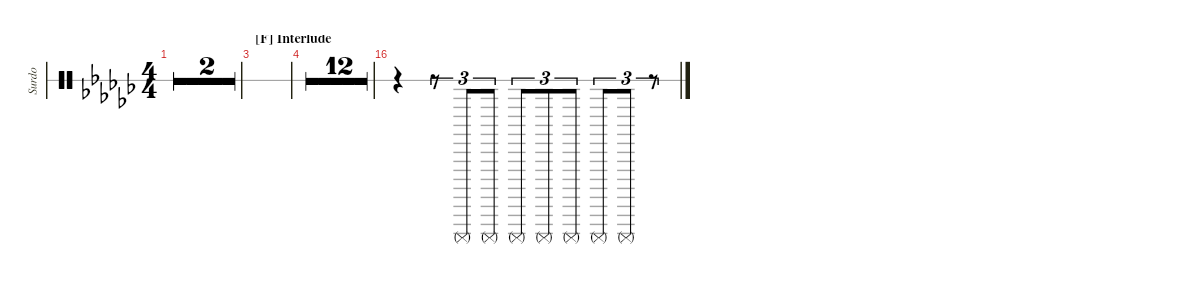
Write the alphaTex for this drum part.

\defaultSystemsLayout 4
\hideDynamics
\bracketExtendMode groupsimilarinstruments
\otherSystemsTrackNameOrientation horizontal
\track ("Surdo" "Surdo") {multiBarRest instrument percussion}
\staff {score 1}
\articulation defaults
\ts (4 4)
\tempo 139
\clef neutral
\ks gb
|
|
\section ("F" "Interlude")
|
|
|
|
|
|
|
|
|
|
|
|
|
r.4 r.8{tu (3 2)} "Surdo (mute)"{acc forcenatural}.8{tu (3 2)} "Surdo (mute)"{acc forcenatural}.8{tu (3 2)} "Surdo (mute)"{acc forcenatural}.8{tu (3 2)} "Surdo (mute)"{acc forcenatural}.8{tu (3 2)} "Surdo (mute)"{acc forcenatural}.8{tu (3 2)} "Surdo (mute)"{acc forcenatural}.8{tu (3 2)} "Surdo (mute)"{acc forcenatural}.8{tu (3 2)} r.8{tu (3 2)}
